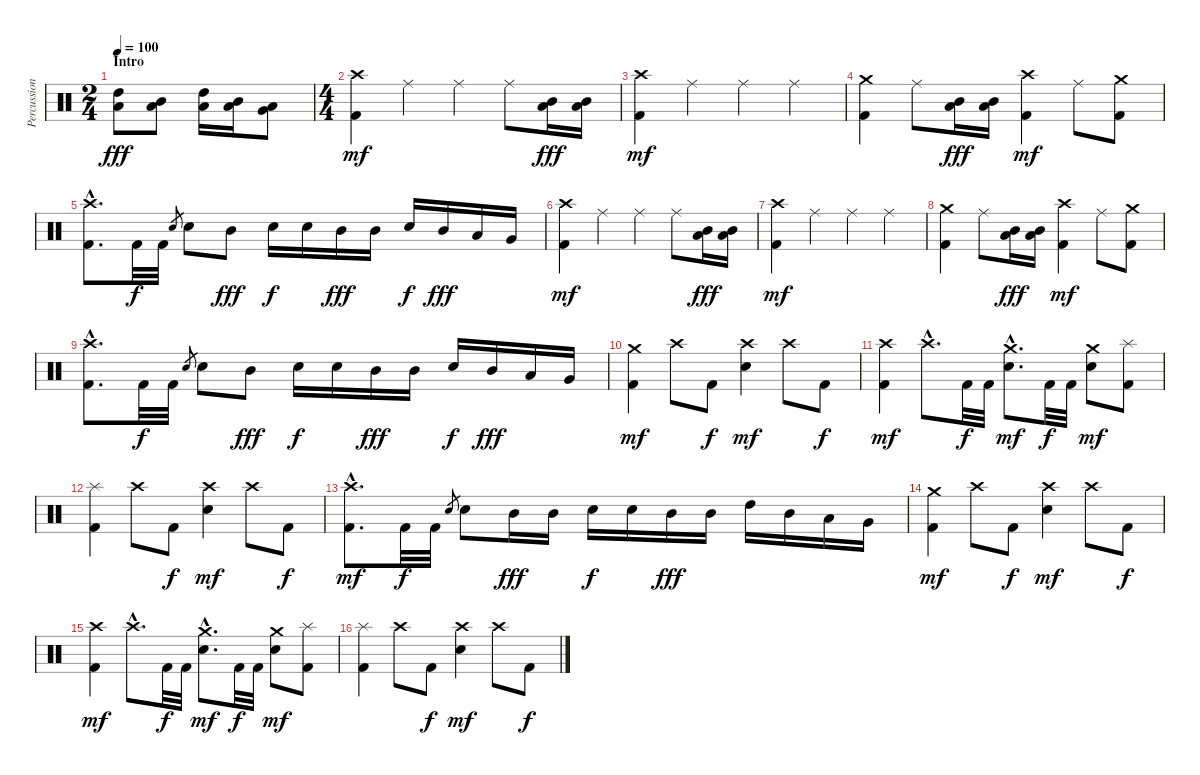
\track ("Percussion" "Percussion") {instrument percussion}
\staff {score}
\articulation defaults
\ts (2 4)
\section ("" "Intro")
\tempo 100
\clef neutral
\ks c
("High Tom (hit)" "Low Tom (hit)").8{dy fff} ("Mid Tom (hit)" "Low Tom (hit)").8 ("High Tom (hit)" "Low Tom (hit)").16 ("Mid Tom (hit)" "Low Tom (hit)").16 ("Low Tom (hit)" "Very Low Tom (hit)").8 |
\ts (4 4)
("Crash high (hit)" "Kick (hit) 2").4{dy mf} "Ride (middle)".4 "Ride (middle)".4 "Ride (middle)".8 ("Mid Tom (hit)" "Low Tom (hit)").16{dy fff} ("Mid Tom (hit)" "Low Tom (hit)").16 |
("Crash high (hit)" "Kick (hit) 2").4{dy mf} "Ride (middle)".4 "Ride (middle)".4 "Ride (middle)".4 |
("Crash medium (hit)" "Kick (hit) 2").4 "Ride (middle)".8 ("Mid Tom (hit)" "Low Tom (hit)").16{dy fff} ("Mid Tom (hit)" "Low Tom (hit)").16 ("Crash high (hit)" "Kick (hit) 2").4{dy mf} "Ride (middle)".8 ("Crash medium (hit)" "Kick (hit) 2").8 |
("Crash high (hit)"{hac} "Kick (hit) 2"{hac}).8{d} "Kick (hit) 2".32{dy f} "Kick (hit) 2".32 "Electric Snare (hit)".8{gr} "Electric Snare (hit)".8 "Mid Tom (hit)".8{dy fff} "Electric Snare (hit)".16{dy f} "Electric Snare (hit)".16 "Mid Tom (hit)".16{dy fff} "Mid Tom (hit)".16 "Electric Snare (hit)".16{dy f} "Mid Tom (hit)".16{dy fff} "Low Tom (hit)".16 "Very Low Tom (hit)".16 |
("Crash high (hit)" "Kick (hit) 2").4{dy mf} "Ride (middle)".4 "Ride (middle)".4 "Ride (middle)".8 ("Mid Tom (hit)" "Low Tom (hit)").16{dy fff} ("Mid Tom (hit)" "Low Tom (hit)").16 |
("Crash high (hit)" "Kick (hit) 2").4{dy mf} "Ride (middle)".4 "Ride (middle)".4 "Ride (middle)".4 |
("Crash medium (hit)" "Kick (hit) 2").4 "Ride (middle)".8 ("Mid Tom (hit)" "Low Tom (hit)").16{dy fff} ("Mid Tom (hit)" "Low Tom (hit)").16 ("Crash high (hit)" "Kick (hit) 2").4{dy mf} "Ride (middle)".8 ("Crash medium (hit)" "Kick (hit) 2").8 |
("Crash high (hit)"{hac} "Kick (hit) 2"{hac}).8{d} "Kick (hit) 2".32{dy f} "Kick (hit) 2".32 "Electric Snare (hit)".8{gr} "Electric Snare (hit)".8 "Mid Tom (hit)".8{dy fff} "Electric Snare (hit)".16{dy f} "Electric Snare (hit)".16 "Mid Tom (hit)".16{dy fff} "Mid Tom (hit)".16 "Electric Snare (hit)".16{dy f} "Mid Tom (hit)".16{dy fff} "Low Tom (hit)".16 "Very Low Tom (hit)".16 |
("Crash medium (hit)" "Kick (hit) 2").4{dy mf} "Crash high (hit)".8 "Kick (hit) 2".8{dy f} ("Crash high (hit)" "Electric Snare (hit)").4{dy mf} "Crash high (hit)".8 "Kick (hit) 2".8{dy f} |
("Crash high (hit)" "Kick (hit) 2").4{dy mf} "Crash high (hit)"{hac}.8{d} "Kick (hit) 2".32{dy f} "Kick (hit) 2".32 ("Crash medium (hit)"{hac} "Electric Snare (hit)"{hac}).8{d dy mf} "Kick (hit) 2".32{dy f} "Kick (hit) 2".32 ("Crash medium (hit)" "Electric Snare (hit)").8{dy mf} ("Splash (hit)" "Kick (hit) 2").8 |
("Splash (hit)" "Kick (hit) 2").4 "Crash high (hit)".8 "Kick (hit) 2".8{dy f} ("Crash high (hit)" "Electric Snare (hit)").4{dy mf} "Crash high (hit)".8 "Kick (hit) 2".8{dy f} |
("Crash high (hit)"{hac} "Kick (hit) 2"{hac}).8{d dy mf} "Kick (hit) 2".32{dy f} "Kick (hit) 2".32 "Electric Snare (hit)".8{gr} "Electric Snare (hit)".8 "Mid Tom (hit)".16{dy fff} "Mid Tom (hit)".16 "Electric Snare (hit)".16{dy f} "Electric Snare (hit)".16 "Mid Tom (hit)".16{dy fff} "Mid Tom (hit)".16 "High Tom (hit)".16 "Mid Tom (hit)".16 "Low Tom (hit)".16 "Very Low Tom (hit)".16 |
("Crash medium (hit)" "Kick (hit) 2").4{dy mf} "Crash high (hit)".8 "Kick (hit) 2".8{dy f} ("Crash high (hit)" "Electric Snare (hit)").4{dy mf} "Crash high (hit)".8 "Kick (hit) 2".8{dy f} |
("Crash high (hit)" "Kick (hit) 2").4{dy mf} "Crash high (hit)"{hac}.8{d} "Kick (hit) 2".32{dy f} "Kick (hit) 2".32 ("Crash medium (hit)"{hac} "Electric Snare (hit)"{hac}).8{d dy mf} "Kick (hit) 2".32{dy f} "Kick (hit) 2".32 ("Crash medium (hit)" "Electric Snare (hit)").8{dy mf} ("Splash (hit)" "Kick (hit) 2").8 |
("Splash (hit)" "Kick (hit) 2").4 "Crash high (hit)".8 "Kick (hit) 2".8{dy f} ("Crash high (hit)" "Electric Snare (hit)").4{dy mf} "Crash high (hit)".8 "Kick (hit) 2".8{dy f}
